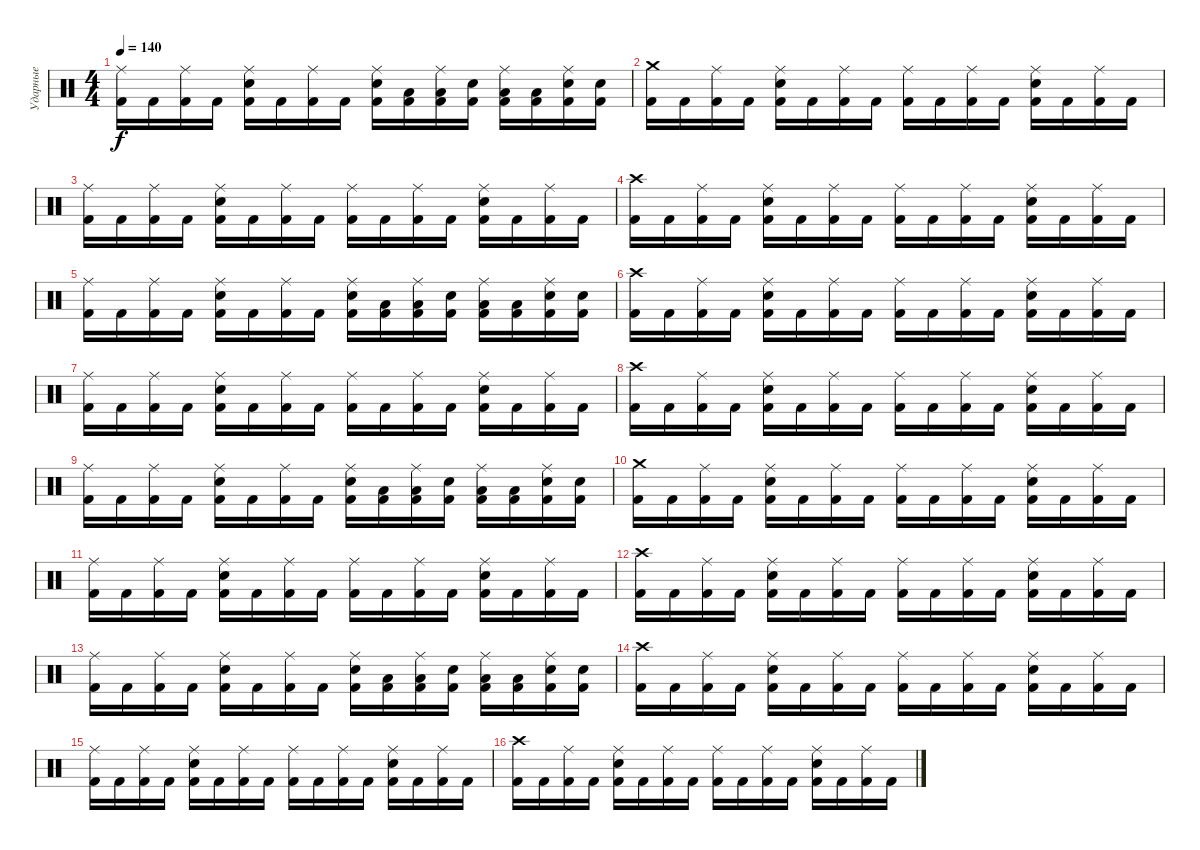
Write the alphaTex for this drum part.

\track ("Ударные" "Ударные") {instrument percussion}
\staff {score}
\articulation defaults
\ts (4 4)
\tempo 140
\clef neutral
\ks c
("Ride (middle)" "Kick (hit) 2").16{dy f} "Kick (hit) 2".16 ("Ride (middle)" "Kick (hit) 2").16 "Kick (hit) 2".16 ("Ride (middle)" "Electric Snare (hit)" "Kick (hit) 2").16 "Kick (hit) 2".16 ("Ride (middle)" "Kick (hit) 2").16 "Kick (hit) 2".16 ("Ride (middle)" "Electric Snare (hit)" "Kick (hit) 2").16 ("Low Tom (hit)" "Kick (hit) 2").16 ("Ride (middle)" "Low Tom (hit)" "Kick (hit) 2").16 ("Electric Snare (hit)" "Kick (hit) 2").16 ("Ride (middle)" "Low Tom (hit)" "Kick (hit) 2").16 ("Low Tom (hit)" "Kick (hit) 2").16 ("Ride (middle)" "Electric Snare (hit)" "Kick (hit) 2").16 ("Electric Snare (hit)" "Kick (hit) 2").16 |
("Crash medium (hit)" "Kick (hit) 2").16 "Kick (hit) 2".16 ("Ride (middle)" "Kick (hit) 2").16 "Kick (hit) 2".16 ("Ride (middle)" "Electric Snare (hit)" "Kick (hit) 2").16 "Kick (hit) 2".16 ("Ride (middle)" "Kick (hit) 2").16 "Kick (hit) 2".16 ("Ride (middle)" "Kick (hit) 2").16 "Kick (hit) 2".16 ("Ride (middle)" "Kick (hit) 2").16 "Kick (hit) 2".16 ("Ride (middle)" "Electric Snare (hit)" "Kick (hit) 2").16 "Kick (hit) 2".16 ("Ride (middle)" "Kick (hit) 2").16 "Kick (hit) 2".16 |
("Ride (middle)" "Kick (hit) 2").16 "Kick (hit) 2".16 ("Ride (middle)" "Kick (hit) 2").16 "Kick (hit) 2".16 ("Ride (middle)" "Electric Snare (hit)" "Kick (hit) 2").16 "Kick (hit) 2".16 ("Ride (middle)" "Kick (hit) 2").16 "Kick (hit) 2".16 ("Ride (middle)" "Kick (hit) 2").16 "Kick (hit) 2".16 ("Ride (middle)" "Kick (hit) 2").16 "Kick (hit) 2".16 ("Ride (middle)" "Electric Snare (hit)" "Kick (hit) 2").16 "Kick (hit) 2".16 ("Ride (middle)" "Kick (hit) 2").16 "Kick (hit) 2".16 |
("Crash high (hit)" "Kick (hit) 2").16 "Kick (hit) 2".16 ("Ride (middle)" "Kick (hit) 2").16 "Kick (hit) 2".16 ("Ride (middle)" "Electric Snare (hit)" "Kick (hit) 2").16 "Kick (hit) 2".16 ("Ride (middle)" "Kick (hit) 2").16 "Kick (hit) 2".16 ("Ride (middle)" "Kick (hit) 2").16 "Kick (hit) 2".16 ("Ride (middle)" "Kick (hit) 2").16 "Kick (hit) 2".16 ("Ride (middle)" "Electric Snare (hit)" "Kick (hit) 2").16 "Kick (hit) 2".16 ("Ride (middle)" "Kick (hit) 2").16 "Kick (hit) 2".16 |
("Ride (middle)" "Kick (hit) 2").16 "Kick (hit) 2".16 ("Ride (middle)" "Kick (hit) 2").16 "Kick (hit) 2".16 ("Ride (middle)" "Electric Snare (hit)" "Kick (hit) 2").16 "Kick (hit) 2".16 ("Ride (middle)" "Kick (hit) 2").16 "Kick (hit) 2".16 ("Ride (middle)" "Electric Snare (hit)" "Kick (hit) 2").16 ("Low Tom (hit)" "Kick (hit) 2").16 ("Ride (middle)" "Low Tom (hit)" "Kick (hit) 2").16 ("Electric Snare (hit)" "Kick (hit) 2").16 ("Ride (middle)" "Low Tom (hit)" "Kick (hit) 2").16 ("Low Tom (hit)" "Kick (hit) 2").16 ("Ride (middle)" "Electric Snare (hit)" "Kick (hit) 2").16 ("Electric Snare (hit)" "Kick (hit) 2").16 |
("Crash high (hit)" "Kick (hit) 2").16 "Kick (hit) 2".16 ("Ride (middle)" "Kick (hit) 2").16 "Kick (hit) 2".16 ("Ride (middle)" "Electric Snare (hit)" "Kick (hit) 2").16 "Kick (hit) 2".16 ("Ride (middle)" "Kick (hit) 2").16 "Kick (hit) 2".16 ("Ride (middle)" "Kick (hit) 2").16 "Kick (hit) 2".16 ("Ride (middle)" "Kick (hit) 2").16 "Kick (hit) 2".16 ("Ride (middle)" "Electric Snare (hit)" "Kick (hit) 2").16 "Kick (hit) 2".16 ("Ride (middle)" "Kick (hit) 2").16 "Kick (hit) 2".16 |
("Ride (middle)" "Kick (hit) 2").16 "Kick (hit) 2".16 ("Ride (middle)" "Kick (hit) 2").16 "Kick (hit) 2".16 ("Ride (middle)" "Electric Snare (hit)" "Kick (hit) 2").16 "Kick (hit) 2".16 ("Ride (middle)" "Kick (hit) 2").16 "Kick (hit) 2".16 ("Ride (middle)" "Kick (hit) 2").16 "Kick (hit) 2".16 ("Ride (middle)" "Kick (hit) 2").16 "Kick (hit) 2".16 ("Ride (middle)" "Electric Snare (hit)" "Kick (hit) 2").16 "Kick (hit) 2".16 ("Ride (middle)" "Kick (hit) 2").16 "Kick (hit) 2".16 |
("Crash high (hit)" "Kick (hit) 2").16 "Kick (hit) 2".16 ("Ride (middle)" "Kick (hit) 2").16 "Kick (hit) 2".16 ("Ride (middle)" "Electric Snare (hit)" "Kick (hit) 2").16 "Kick (hit) 2".16 ("Ride (middle)" "Kick (hit) 2").16 "Kick (hit) 2".16 ("Ride (middle)" "Kick (hit) 2").16 "Kick (hit) 2".16 ("Ride (middle)" "Kick (hit) 2").16 "Kick (hit) 2".16 ("Ride (middle)" "Electric Snare (hit)" "Kick (hit) 2").16 "Kick (hit) 2".16 ("Ride (middle)" "Kick (hit) 2").16 "Kick (hit) 2".16 |
("Ride (middle)" "Kick (hit) 2").16 "Kick (hit) 2".16 ("Ride (middle)" "Kick (hit) 2").16 "Kick (hit) 2".16 ("Ride (middle)" "Electric Snare (hit)" "Kick (hit) 2").16 "Kick (hit) 2".16 ("Ride (middle)" "Kick (hit) 2").16 "Kick (hit) 2".16 ("Ride (middle)" "Electric Snare (hit)" "Kick (hit) 2").16 ("Low Tom (hit)" "Kick (hit) 2").16 ("Ride (middle)" "Low Tom (hit)" "Kick (hit) 2").16 ("Electric Snare (hit)" "Kick (hit) 2").16 ("Ride (middle)" "Low Tom (hit)" "Kick (hit) 2").16 ("Low Tom (hit)" "Kick (hit) 2").16 ("Ride (middle)" "Electric Snare (hit)" "Kick (hit) 2").16 ("Electric Snare (hit)" "Kick (hit) 2").16 |
("Crash medium (hit)" "Kick (hit) 2").16 "Kick (hit) 2".16 ("Ride (middle)" "Kick (hit) 2").16 "Kick (hit) 2".16 ("Ride (middle)" "Electric Snare (hit)" "Kick (hit) 2").16 "Kick (hit) 2".16 ("Ride (middle)" "Kick (hit) 2").16 "Kick (hit) 2".16 ("Ride (middle)" "Kick (hit) 2").16 "Kick (hit) 2".16 ("Ride (middle)" "Kick (hit) 2").16 "Kick (hit) 2".16 ("Ride (middle)" "Electric Snare (hit)" "Kick (hit) 2").16 "Kick (hit) 2".16 ("Ride (middle)" "Kick (hit) 2").16 "Kick (hit) 2".16 |
("Ride (middle)" "Kick (hit) 2").16 "Kick (hit) 2".16 ("Ride (middle)" "Kick (hit) 2").16 "Kick (hit) 2".16 ("Ride (middle)" "Electric Snare (hit)" "Kick (hit) 2").16 "Kick (hit) 2".16 ("Ride (middle)" "Kick (hit) 2").16 "Kick (hit) 2".16 ("Ride (middle)" "Kick (hit) 2").16 "Kick (hit) 2".16 ("Ride (middle)" "Kick (hit) 2").16 "Kick (hit) 2".16 ("Ride (middle)" "Electric Snare (hit)" "Kick (hit) 2").16 "Kick (hit) 2".16 ("Ride (middle)" "Kick (hit) 2").16 "Kick (hit) 2".16 |
("Crash high (hit)" "Kick (hit) 2").16 "Kick (hit) 2".16 ("Ride (middle)" "Kick (hit) 2").16 "Kick (hit) 2".16 ("Ride (middle)" "Electric Snare (hit)" "Kick (hit) 2").16 "Kick (hit) 2".16 ("Ride (middle)" "Kick (hit) 2").16 "Kick (hit) 2".16 ("Ride (middle)" "Kick (hit) 2").16 "Kick (hit) 2".16 ("Ride (middle)" "Kick (hit) 2").16 "Kick (hit) 2".16 ("Ride (middle)" "Electric Snare (hit)" "Kick (hit) 2").16 "Kick (hit) 2".16 ("Ride (middle)" "Kick (hit) 2").16 "Kick (hit) 2".16 |
("Ride (middle)" "Kick (hit) 2").16 "Kick (hit) 2".16 ("Ride (middle)" "Kick (hit) 2").16 "Kick (hit) 2".16 ("Ride (middle)" "Electric Snare (hit)" "Kick (hit) 2").16 "Kick (hit) 2".16 ("Ride (middle)" "Kick (hit) 2").16 "Kick (hit) 2".16 ("Ride (middle)" "Electric Snare (hit)" "Kick (hit) 2").16 ("Low Tom (hit)" "Kick (hit) 2").16 ("Ride (middle)" "Low Tom (hit)" "Kick (hit) 2").16 ("Electric Snare (hit)" "Kick (hit) 2").16 ("Ride (middle)" "Low Tom (hit)" "Kick (hit) 2").16 ("Low Tom (hit)" "Kick (hit) 2").16 ("Ride (middle)" "Electric Snare (hit)" "Kick (hit) 2").16 ("Electric Snare (hit)" "Kick (hit) 2").16 |
("Crash high (hit)" "Kick (hit) 2").16 "Kick (hit) 2".16 ("Ride (middle)" "Kick (hit) 2").16 "Kick (hit) 2".16 ("Ride (middle)" "Electric Snare (hit)" "Kick (hit) 2").16 "Kick (hit) 2".16 ("Ride (middle)" "Kick (hit) 2").16 "Kick (hit) 2".16 ("Ride (middle)" "Kick (hit) 2").16 "Kick (hit) 2".16 ("Ride (middle)" "Kick (hit) 2").16 "Kick (hit) 2".16 ("Ride (middle)" "Electric Snare (hit)" "Kick (hit) 2").16 "Kick (hit) 2".16 ("Ride (middle)" "Kick (hit) 2").16 "Kick (hit) 2".16 |
("Ride (middle)" "Kick (hit) 2").16 "Kick (hit) 2".16 ("Ride (middle)" "Kick (hit) 2").16 "Kick (hit) 2".16 ("Ride (middle)" "Electric Snare (hit)" "Kick (hit) 2").16 "Kick (hit) 2".16 ("Ride (middle)" "Kick (hit) 2").16 "Kick (hit) 2".16 ("Ride (middle)" "Kick (hit) 2").16 "Kick (hit) 2".16 ("Ride (middle)" "Kick (hit) 2").16 "Kick (hit) 2".16 ("Ride (middle)" "Electric Snare (hit)" "Kick (hit) 2").16 "Kick (hit) 2".16 ("Ride (middle)" "Kick (hit) 2").16 "Kick (hit) 2".16 |
("Crash high (hit)" "Kick (hit) 2").16 "Kick (hit) 2".16 ("Ride (middle)" "Kick (hit) 2").16 "Kick (hit) 2".16 ("Ride (middle)" "Electric Snare (hit)" "Kick (hit) 2").16 "Kick (hit) 2".16 ("Ride (middle)" "Kick (hit) 2").16 "Kick (hit) 2".16 ("Ride (middle)" "Kick (hit) 2").16 "Kick (hit) 2".16 ("Ride (middle)" "Kick (hit) 2").16 "Kick (hit) 2".16 ("Ride (middle)" "Electric Snare (hit)" "Kick (hit) 2").16 "Kick (hit) 2".16 ("Ride (middle)" "Kick (hit) 2").16 "Kick (hit) 2".16
